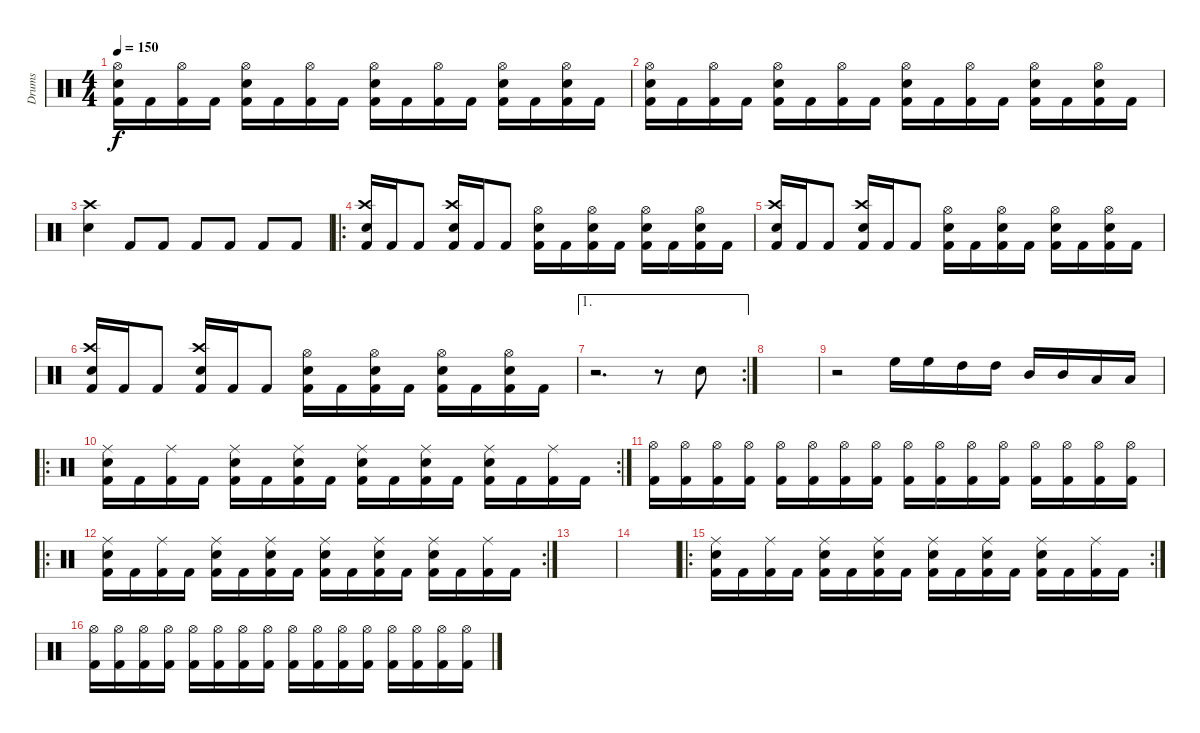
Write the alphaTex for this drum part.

\track ("Drums" "Drums") {instrument percussion}
\staff {score}
\articulation defaults
\ts (4 4)
\tempo 150
\clef neutral
\ks aminor
("Hi-Hat (open)" "Electric Snare (hit)" "Kick (hit) 2").16{dy f} "Kick (hit) 2".16 ("Hi-Hat (open)" "Kick (hit) 2").16 "Kick (hit) 2".16 ("Hi-Hat (open)" "Electric Snare (hit)" "Kick (hit) 2").16 "Kick (hit) 2".16 ("Hi-Hat (open)" "Kick (hit) 2").16 "Kick (hit) 2".16 ("Hi-Hat (open)" "Electric Snare (hit)" "Kick (hit) 2").16 "Kick (hit) 2".16 ("Hi-Hat (open)" "Kick (hit) 2").16 "Kick (hit) 2".16 ("Hi-Hat (open)" "Electric Snare (hit)" "Kick (hit) 2").16 "Kick (hit) 2".16 ("Hi-Hat (open)" "Electric Snare (hit)" "Kick (hit) 2").16 "Kick (hit) 2".16 |
("Hi-Hat (open)" "Electric Snare (hit)" "Kick (hit) 2").16 "Kick (hit) 2".16 ("Hi-Hat (open)" "Kick (hit) 2").16 "Kick (hit) 2".16 ("Hi-Hat (open)" "Electric Snare (hit)" "Kick (hit) 2").16 "Kick (hit) 2".16 ("Hi-Hat (open)" "Kick (hit) 2").16 "Kick (hit) 2".16 ("Hi-Hat (open)" "Electric Snare (hit)" "Kick (hit) 2").16 "Kick (hit) 2".16 ("Hi-Hat (open)" "Kick (hit) 2").16 "Kick (hit) 2".16 ("Hi-Hat (open)" "Electric Snare (hit)" "Kick (hit) 2").16 "Kick (hit) 2".16 ("Hi-Hat (open)" "Electric Snare (hit)" "Kick (hit) 2").16 "Kick (hit) 2".16 |
("Crash high (hit)" "Electric Snare (hit)").4 "Kick (hit) 2".8 "Kick (hit) 2".8 "Kick (hit) 2".8 "Kick (hit) 2".8 "Kick (hit) 2".8 "Kick (hit) 2".8 |
\ro
("Crash high (hit)" "Snare (hit) 2" "Kick (hit) 2").16 "Kick (hit) 2".16 "Kick (hit) 2".8 ("Crash high (hit)" "Snare (hit) 2" "Kick (hit) 2").16 "Kick (hit) 2".16 "Kick (hit) 2".8 ("Hi-Hat (open)" "Snare (hit) 2" "Kick (hit) 2").16 "Kick (hit) 2".16 ("Hi-Hat (open)" "Snare (hit) 2" "Kick (hit) 2").16 "Kick (hit) 2".16 ("Hi-Hat (open)" "Snare (hit) 2" "Kick (hit) 2").16 "Kick (hit) 2".16 ("Hi-Hat (open)" "Snare (hit) 2" "Kick (hit) 2").16 "Kick (hit) 2".16 |
("Crash high (hit)" "Snare (hit) 2" "Kick (hit) 2").16 "Kick (hit) 2".16 "Kick (hit) 2".8 ("Crash high (hit)" "Snare (hit) 2" "Kick (hit) 2").16 "Kick (hit) 2".16 "Kick (hit) 2".8 ("Hi-Hat (open)" "Snare (hit) 2" "Kick (hit) 2").16 "Kick (hit) 2".16 ("Hi-Hat (open)" "Snare (hit) 2" "Kick (hit) 2").16 "Kick (hit) 2".16 ("Hi-Hat (open)" "Snare (hit) 2" "Kick (hit) 2").16 "Kick (hit) 2".16 ("Hi-Hat (open)" "Snare (hit) 2" "Kick (hit) 2").16 "Kick (hit) 2".16 |
("Crash high (hit)" "Snare (hit) 2" "Kick (hit) 2").16 "Kick (hit) 2".16 "Kick (hit) 2".8 ("Crash high (hit)" "Snare (hit) 2" "Kick (hit) 2").16 "Kick (hit) 2".16 "Kick (hit) 2".8 ("Hi-Hat (open)" "Snare (hit) 2" "Kick (hit) 2").16 "Kick (hit) 2".16 ("Hi-Hat (open)" "Snare (hit) 2" "Kick (hit) 2").16 "Kick (hit) 2".16 ("Hi-Hat (open)" "Snare (hit) 2" "Kick (hit) 2").16 "Kick (hit) 2".16 ("Hi-Hat (open)" "Snare (hit) 2" "Kick (hit) 2").16 "Kick (hit) 2".16 |
\ae 1
\rc 2
r.2{d} r.8 "Snare (hit) 2".8 |
|
r.2 "High Floor Tom (hit)".16 "High Floor Tom (hit)".16 "High Tom (hit)".16 "High Tom (hit)".16 "Mid Tom (hit)".16 "Mid Tom (hit)".16 "Low Tom (hit)".16 "Low Tom (hit)".16 |
\ro
\rc 2
("Ride (middle)" "Snare (hit) 2" "Kick (hit) 2").16 "Kick (hit) 2".16 ("Ride (middle)" "Kick (hit) 2").16 "Kick (hit) 2".16 ("Ride (middle)" "Snare (hit) 2" "Kick (hit) 2").16 "Kick (hit) 2".16 ("Ride (middle)" "Snare (hit) 2" "Kick (hit) 2").16 "Kick (hit) 2".16 ("Ride (middle)" "Snare (hit) 2" "Kick (hit) 2").16 "Kick (hit) 2".16 ("Ride (middle)" "Snare (hit) 2" "Kick (hit) 2").16 "Kick (hit) 2".16 ("Ride (middle)" "Snare (hit) 2" "Kick (hit) 2").16 "Kick (hit) 2".16 ("Ride (middle)" "Kick (hit) 2").16 "Kick (hit) 2".16 |
("Hi-Hat (open)" "Kick (hit) 2").16 ("Hi-Hat (open)" "Kick (hit) 2").16 ("Hi-Hat (open)" "Kick (hit) 2").16 ("Hi-Hat (open)" "Kick (hit) 2").16 ("Hi-Hat (open)" "Kick (hit) 2").16 ("Hi-Hat (open)" "Kick (hit) 2").16 ("Hi-Hat (open)" "Kick (hit) 2").16 ("Hi-Hat (open)" "Kick (hit) 2").16 ("Hi-Hat (open)" "Kick (hit) 2").16 ("Hi-Hat (open)" "Kick (hit) 2").16 ("Hi-Hat (open)" "Kick (hit) 2").16 ("Hi-Hat (open)" "Kick (hit) 2").16 ("Hi-Hat (open)" "Kick (hit) 2").16 ("Hi-Hat (open)" "Kick (hit) 2").16 ("Hi-Hat (open)" "Kick (hit) 2").16 ("Hi-Hat (open)" "Kick (hit) 2").16 |
\ro
\rc 2
("Ride (middle)" "Snare (hit) 2" "Kick (hit) 2").16 "Kick (hit) 2".16 ("Ride (middle)" "Kick (hit) 2").16 "Kick (hit) 2".16 ("Ride (middle)" "Snare (hit) 2" "Kick (hit) 2").16 "Kick (hit) 2".16 ("Ride (middle)" "Snare (hit) 2" "Kick (hit) 2").16 "Kick (hit) 2".16 ("Ride (middle)" "Snare (hit) 2" "Kick (hit) 2").16 "Kick (hit) 2".16 ("Ride (middle)" "Snare (hit) 2" "Kick (hit) 2").16 "Kick (hit) 2".16 ("Ride (middle)" "Snare (hit) 2" "Kick (hit) 2").16 "Kick (hit) 2".16 ("Ride (middle)" "Kick (hit) 2").16 "Kick (hit) 2".16 |
|
|
\ro
\rc 2
("Ride (middle)" "Snare (hit) 2" "Kick (hit) 2").16 "Kick (hit) 2".16 ("Ride (middle)" "Kick (hit) 2").16 "Kick (hit) 2".16 ("Ride (middle)" "Snare (hit) 2" "Kick (hit) 2").16 "Kick (hit) 2".16 ("Ride (middle)" "Snare (hit) 2" "Kick (hit) 2").16 "Kick (hit) 2".16 ("Ride (middle)" "Snare (hit) 2" "Kick (hit) 2").16 "Kick (hit) 2".16 ("Ride (middle)" "Snare (hit) 2" "Kick (hit) 2").16 "Kick (hit) 2".16 ("Ride (middle)" "Snare (hit) 2" "Kick (hit) 2").16 "Kick (hit) 2".16 ("Ride (middle)" "Kick (hit) 2").16 "Kick (hit) 2".16 |
("Hi-Hat (open)" "Kick (hit) 2").16 ("Hi-Hat (open)" "Kick (hit) 2").16 ("Hi-Hat (open)" "Kick (hit) 2").16 ("Hi-Hat (open)" "Kick (hit) 2").16 ("Hi-Hat (open)" "Kick (hit) 2").16 ("Hi-Hat (open)" "Kick (hit) 2").16 ("Hi-Hat (open)" "Kick (hit) 2").16 ("Hi-Hat (open)" "Kick (hit) 2").16 ("Hi-Hat (open)" "Kick (hit) 2").16 ("Hi-Hat (open)" "Kick (hit) 2").16 ("Hi-Hat (open)" "Kick (hit) 2").16 ("Hi-Hat (open)" "Kick (hit) 2").16 ("Hi-Hat (open)" "Kick (hit) 2").16 ("Hi-Hat (open)" "Kick (hit) 2").16 ("Hi-Hat (open)" "Kick (hit) 2").16 ("Hi-Hat (open)" "Kick (hit) 2").16
